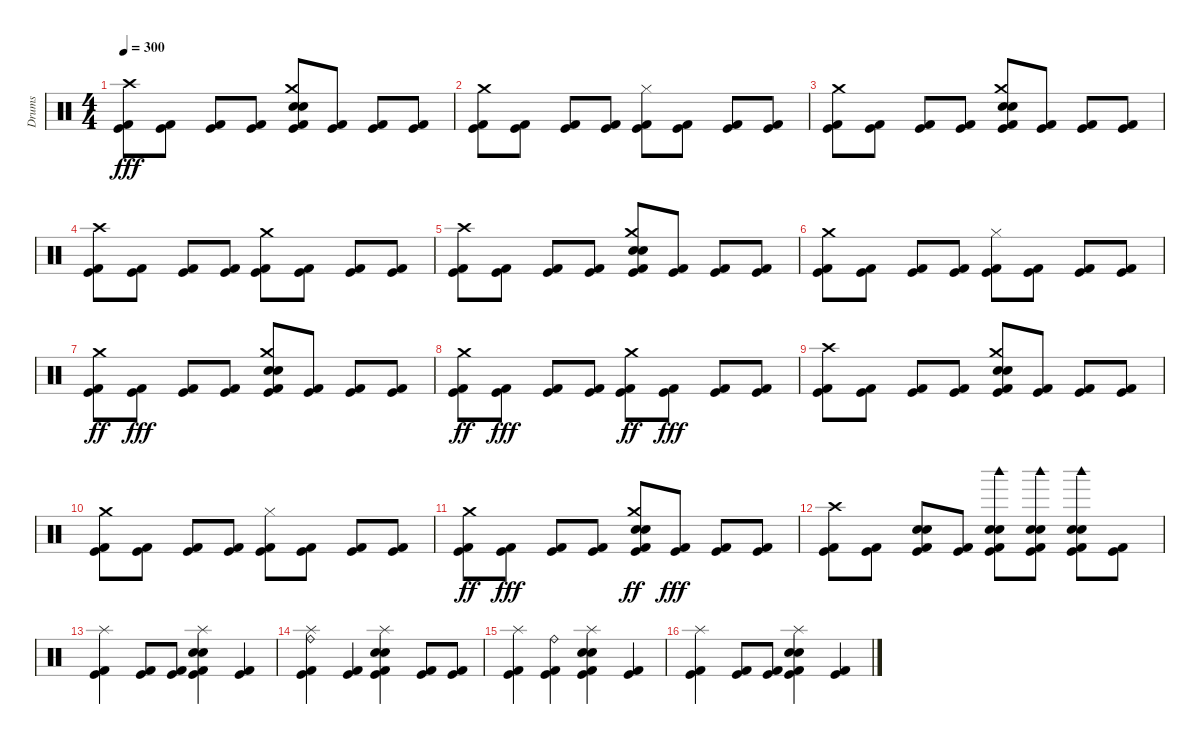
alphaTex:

\track ("Drums" "Drums") {instrument percussion}
\staff {score}
\articulation defaults
\ts (4 4)
\tempo 300
\clef neutral
\ks c
("Kick (hit) 2" "Kick (hit)" "Crash high (hit)").8{dy fff} ("Kick (hit) 2" "Kick (hit)").8 ("Kick (hit) 2" "Kick (hit)").8 ("Kick (hit) 2" "Kick (hit)").8 ("Kick (hit) 2" "Snare (hit) 2" "Crash medium (hit)" "Electric Snare (hit)" "Kick (hit)").8 ("Kick (hit) 2" "Kick (hit)").8 ("Kick (hit) 2" "Kick (hit)").8 ("Kick (hit) 2" "Kick (hit)").8 |
("Kick (hit) 2" "Crash medium (hit)" "Kick (hit)").8 ("Kick (hit) 2" "Kick (hit)").8 ("Kick (hit) 2" "Kick (hit)").8 ("Kick (hit) 2" "Kick (hit)").8 ("Kick (hit) 2" "Kick (hit)" "Hi-Hat (closed)").8 ("Kick (hit) 2" "Kick (hit)").8 ("Kick (hit) 2" "Kick (hit)").8 ("Kick (hit) 2" "Kick (hit)").8 |
("Kick (hit) 2" "Crash medium (hit)" "Kick (hit)").8 ("Kick (hit) 2" "Kick (hit)").8 ("Kick (hit) 2" "Kick (hit)").8 ("Kick (hit) 2" "Kick (hit)").8 ("Kick (hit) 2" "Crash medium (hit)" "Electric Snare (hit)" "Snare (hit) 2" "Kick (hit)").8 ("Kick (hit) 2" "Kick (hit)").8 ("Kick (hit) 2" "Kick (hit)").8 ("Kick (hit) 2" "Kick (hit)").8 |
("Kick (hit) 2" "Kick (hit)" "Crash high (hit)").8 ("Kick (hit) 2" "Kick (hit)").8 ("Kick (hit) 2" "Kick (hit)").8 ("Kick (hit) 2" "Kick (hit)").8 ("Kick (hit) 2" "Crash medium (hit)" "Kick (hit)").8 ("Kick (hit) 2" "Kick (hit)").8 ("Kick (hit) 2" "Kick (hit)").8 ("Kick (hit) 2" "Kick (hit)").8 |
("Kick (hit) 2" "Crash high (hit)" "Kick (hit)").8 ("Kick (hit) 2" "Kick (hit)").8 ("Kick (hit) 2" "Kick (hit)").8 ("Kick (hit) 2" "Kick (hit)").8 ("Kick (hit) 2" "Snare (hit) 2" "Electric Snare (hit)" "Crash medium (hit)" "Kick (hit)").8 ("Kick (hit) 2" "Kick (hit)").8 ("Kick (hit) 2" "Kick (hit)").8 ("Kick (hit) 2" "Kick (hit)").8 |
("Kick (hit) 2" "Crash medium (hit)" "Kick (hit)").8 ("Kick (hit) 2" "Kick (hit)").8 ("Kick (hit) 2" "Kick (hit)").8 ("Kick (hit) 2" "Kick (hit)").8 ("Kick (hit) 2" "Hi-Hat (closed)" "Kick (hit)").8 ("Kick (hit) 2" "Kick (hit)").8 ("Kick (hit) 2" "Kick (hit)").8 ("Kick (hit) 2" "Kick (hit)").8 |
("Kick (hit) 2" "Kick (hit)" "Crash medium (hit)").8{dy ff} ("Kick (hit) 2" "Kick (hit)").8{dy fff} ("Kick (hit) 2" "Kick (hit)").8 ("Kick (hit) 2" "Kick (hit)").8 ("Kick (hit) 2" "Crash medium (hit)" "Snare (hit) 2" "Electric Snare (hit)" "Kick (hit)").8 ("Kick (hit) 2" "Kick (hit)").8 ("Kick (hit) 2" "Kick (hit)").8 ("Kick (hit) 2" "Kick (hit)").8 |
("Kick (hit) 2" "Kick (hit)" "Crash medium (hit)").8{dy ff} ("Kick (hit) 2" "Kick (hit)").8{dy fff} ("Kick (hit) 2" "Kick (hit)").8 ("Kick (hit) 2" "Kick (hit)").8 ("Kick (hit) 2" "Kick (hit)" "Crash medium (hit)").8{dy ff} ("Kick (hit) 2" "Kick (hit)").8{dy fff} ("Kick (hit) 2" "Kick (hit)").8 ("Kick (hit) 2" "Kick (hit)").8 |
("Kick (hit) 2" "Kick (hit)" "Crash high (hit)").8 ("Kick (hit) 2" "Kick (hit)").8 ("Kick (hit) 2" "Kick (hit)").8 ("Kick (hit) 2" "Kick (hit)").8 ("Kick (hit) 2" "Kick (hit)" "Electric Snare (hit)" "Crash medium (hit)" "Snare (hit) 2").8 ("Kick (hit) 2" "Kick (hit)").8 ("Kick (hit) 2" "Kick (hit)").8 ("Kick (hit) 2" "Kick (hit)").8 |
("Kick (hit) 2" "Crash medium (hit)" "Kick (hit)").8 ("Kick (hit) 2" "Kick (hit)").8 ("Kick (hit) 2" "Kick (hit)").8 ("Kick (hit) 2" "Kick (hit)").8 ("Kick (hit) 2" "Hi-Hat (closed)" "Kick (hit)").8 ("Kick (hit) 2" "Kick (hit)").8 ("Kick (hit) 2" "Kick (hit)").8 ("Kick (hit) 2" "Kick (hit)").8 |
("Kick (hit) 2" "Kick (hit)" "Crash medium (hit)").8{dy ff} ("Kick (hit) 2" "Kick (hit)").8{dy fff} ("Kick (hit) 2" "Kick (hit)").8 ("Kick (hit) 2" "Kick (hit)").8 ("Kick (hit) 2" "Kick (hit)" "Snare (hit) 2" "Electric Snare (hit)" "Crash medium (hit)").8{dy ff} ("Kick (hit) 2" "Kick (hit)").8{dy fff} ("Kick (hit) 2" "Kick (hit)").8 ("Kick (hit) 2" "Kick (hit)").8 |
("Kick (hit) 2" "Crash high (hit)" "Kick (hit)").8 ("Kick (hit) 2" "Kick (hit)").8 ("Kick (hit) 2" "Electric Snare (hit)" "Snare (hit) 2" "Kick (hit)").8 ("Kick (hit) 2" "Kick (hit)").8 ("Kick (hit) 2" "Woodblock high (hit)" "Snare (hit) 2" "Electric Snare (hit)" "Kick (hit)").8 ("Kick (hit) 2" "Woodblock high (hit)" "Snare (hit) 2" "Electric Snare (hit)" "Kick (hit)").8 ("Kick (hit) 2" "Woodblock high (hit)" "Snare (hit) 2" "Electric Snare (hit)" "Kick (hit)").8 ("Kick (hit) 2" "Kick (hit)").8 |
("Kick (hit) 2" "Splash (hit)" "Kick (hit)").4 ("Kick (hit) 2" "Kick (hit)").8 ("Kick (hit) 2" "Kick (hit)").8 ("Kick (hit) 2" "Snare (hit) 2" "Electric Snare (hit)" "Splash (hit)" "Kick (hit)").4 ("Kick (hit) 2" "Kick (hit)").4 |
("Kick (hit) 2" "Ride (bell)" "Splash (hit)" "Kick (hit)").4 ("Kick (hit) 2" "Kick (hit)").4 ("Kick (hit) 2" "Electric Snare (hit)" "Snare (hit) 2" "Splash (hit)" "Kick (hit)").4 ("Kick (hit) 2" "Kick (hit)").8 ("Kick (hit) 2" "Kick (hit)").8 |
("Kick (hit) 2" "Splash (hit)" "Kick (hit)").4 ("Kick (hit) 2" "Ride (bell)" "Kick (hit)").4 ("Kick (hit) 2" "Snare (hit) 2" "Electric Snare (hit)" "Splash (hit)" "Kick (hit)").4 ("Kick (hit) 2" "Kick (hit)").4 |
("Kick (hit) 2" "Splash (hit)" "Kick (hit)").4 ("Kick (hit) 2" "Kick (hit)").8 ("Kick (hit) 2" "Kick (hit)").8 ("Kick (hit) 2" "Snare (hit) 2" "Electric Snare (hit)" "Splash (hit)" "Kick (hit)").4 ("Kick (hit) 2" "Kick (hit)").4
